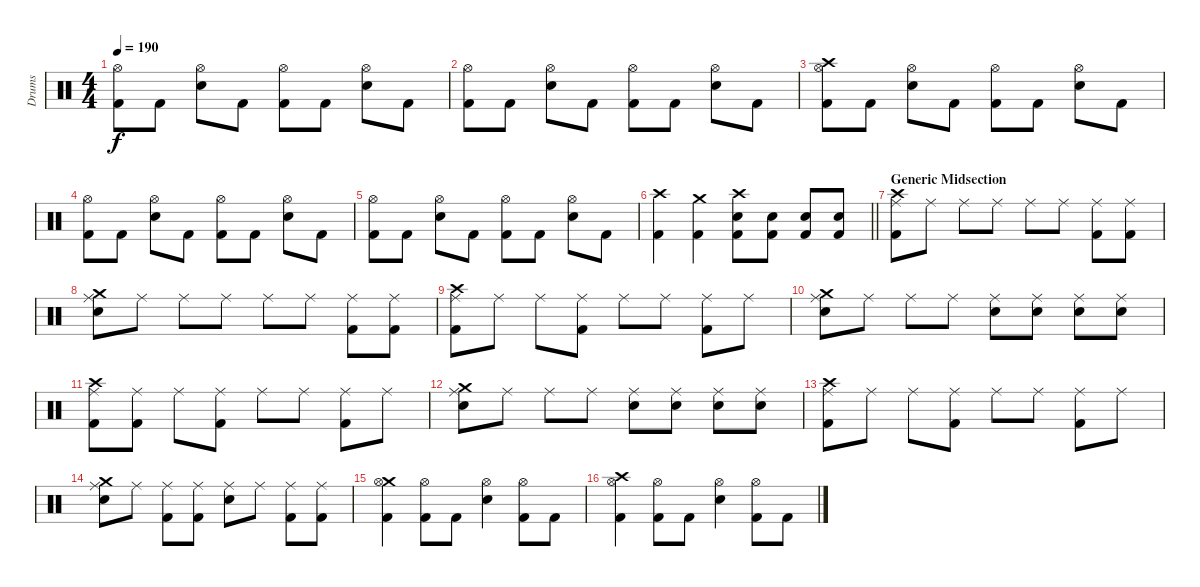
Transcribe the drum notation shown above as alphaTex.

\track ("Drums" "Drums") {instrument percussion}
\staff {score}
\articulation defaults
\ts (4 4)
\tempo 190
\clef neutral
\ks c
("Hi-Hat (open)" "Kick (hit) 2").8{dy f} "Kick (hit) 2".8 ("Hi-Hat (open)" "Snare (hit) 2").8 "Kick (hit) 2".8 ("Hi-Hat (open)" "Kick (hit) 2").8 "Kick (hit) 2".8 ("Hi-Hat (open)" "Snare (hit) 2").8 "Kick (hit) 2".8 |
("Hi-Hat (open)" "Kick (hit) 2").8 "Kick (hit) 2".8 ("Hi-Hat (open)" "Snare (hit) 2").8 "Kick (hit) 2".8 ("Hi-Hat (open)" "Kick (hit) 2").8 "Kick (hit) 2".8 ("Hi-Hat (open)" "Snare (hit) 2").8 "Kick (hit) 2".8 |
("Crash high (hit)" "Hi-Hat (open)" "Kick (hit) 2").8 "Kick (hit) 2".8 ("Hi-Hat (open)" "Snare (hit) 2").8 "Kick (hit) 2".8 ("Hi-Hat (open)" "Kick (hit) 2").8 "Kick (hit) 2".8 ("Hi-Hat (open)" "Snare (hit) 2").8 "Kick (hit) 2".8 |
("Hi-Hat (open)" "Kick (hit) 2").8 "Kick (hit) 2".8 ("Hi-Hat (open)" "Snare (hit) 2").8 "Kick (hit) 2".8 ("Hi-Hat (open)" "Kick (hit) 2").8 "Kick (hit) 2".8 ("Hi-Hat (open)" "Snare (hit) 2").8 "Kick (hit) 2".8 |
("Hi-Hat (open)" "Kick (hit) 2").8 "Kick (hit) 2".8 ("Hi-Hat (open)" "Snare (hit) 2").8 "Kick (hit) 2".8 ("Hi-Hat (open)" "Kick (hit) 2").8 "Kick (hit) 2".8 ("Hi-Hat (open)" "Snare (hit) 2").8 "Kick (hit) 2".8 |
\barLineRight lightlight
("Crash high (hit)" "Kick (hit) 2").4 ("Crash medium (hit)" "Kick (hit) 2").4 ("Crash high (hit)" "Snare (hit) 2" "Kick (hit) 2").8 ("Snare (hit) 2" "Kick (hit) 2").8 ("Snare (hit) 2" "Kick (hit) 2").8 ("Snare (hit) 2" "Kick (hit) 2").8 |
\section ("" "Generic Midsection")
("Crash high (hit)" "Ride (middle)" "Kick (hit) 2").8 "Ride (middle)".8 "Ride (middle)".8 "Ride (middle)".8 "Ride (middle)".8 "Ride (middle)".8 ("Ride (middle)" "Kick (hit) 2").8 ("Ride (middle)" "Kick (hit) 2").8 |
("Crash medium (hit)" "Ride (middle)" "Snare (hit) 2").8 "Ride (middle)".8 "Ride (middle)".8 "Ride (middle)".8 "Ride (middle)".8 "Ride (middle)".8 ("Ride (middle)" "Kick (hit) 2").8 ("Ride (middle)" "Kick (hit) 2").8 |
("Crash high (hit)" "Ride (middle)" "Kick (hit) 2").8 "Ride (middle)".8 "Ride (middle)".8 ("Ride (middle)" "Kick (hit) 2").8 "Ride (middle)".8 "Ride (middle)".8 ("Ride (middle)" "Kick (hit) 2").8 "Ride (middle)".8 |
("Crash medium (hit)" "Ride (middle)" "Snare (hit) 2").8 "Ride (middle)".8 "Ride (middle)".8 "Ride (middle)".8 ("Ride (middle)" "Snare (hit) 2").8 ("Ride (middle)" "Snare (hit) 2").8 ("Ride (middle)" "Snare (hit) 2").8 ("Ride (middle)" "Snare (hit) 2").8 |
("Crash high (hit)" "Ride (middle)" "Kick (hit) 2").8 ("Ride (middle)" "Kick (hit) 2").8 "Ride (middle)".8 ("Ride (middle)" "Kick (hit) 2").8 "Ride (middle)".8 "Ride (middle)".8 ("Ride (middle)" "Kick (hit) 2").8 "Ride (middle)".8 |
("Crash medium (hit)" "Ride (middle)" "Snare (hit) 2").8 "Ride (middle)".8 "Ride (middle)".8 "Ride (middle)".8 ("Ride (middle)" "Snare (hit) 2").8 ("Ride (middle)" "Snare (hit) 2").8 ("Ride (middle)" "Snare (hit) 2").8 ("Ride (middle)" "Snare (hit) 2").8 |
("Crash high (hit)" "Ride (middle)" "Kick (hit) 2").8 "Ride (middle)".8 "Ride (middle)".8 ("Ride (middle)" "Kick (hit) 2").8 "Ride (middle)".8 "Ride (middle)".8 ("Ride (middle)" "Kick (hit) 2").8 "Ride (middle)".8 |
("Crash medium (hit)" "Ride (middle)" "Snare (hit) 2").8 "Ride (middle)".8 ("Ride (middle)" "Kick (hit) 2").8 ("Ride (middle)" "Kick (hit) 2").8 ("Ride (middle)" "Snare (hit) 2").8 "Ride (middle)".8 ("Ride (middle)" "Kick (hit) 2").8 ("Ride (middle)" "Kick (hit) 2").8 |
("Crash medium (hit)" "Hi-Hat (open)" "Kick (hit) 2").4 ("Hi-Hat (open)" "Kick (hit) 2").8 "Kick (hit) 2".8 ("Hi-Hat (open)" "Snare (hit) 2").4 ("Hi-Hat (open)" "Kick (hit) 2").8 "Kick (hit) 2".8 |
("Crash high (hit)" "Hi-Hat (open)" "Kick (hit) 2").4 ("Hi-Hat (open)" "Kick (hit) 2").8 "Kick (hit) 2".8 ("Hi-Hat (open)" "Snare (hit) 2").4 ("Hi-Hat (open)" "Kick (hit) 2").8 "Kick (hit) 2".8
